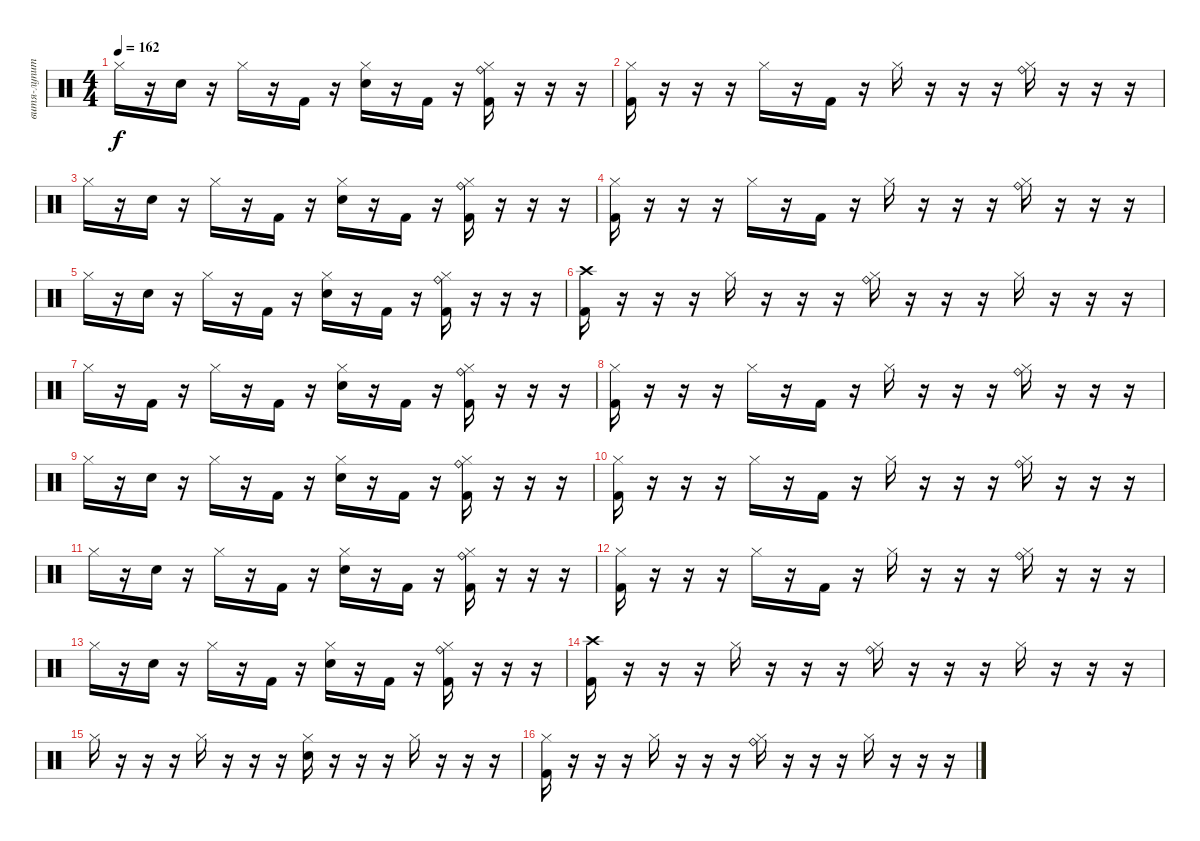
\track ("витя-лупит" "витя-лупит") {instrument percussion}
\staff {score}
\articulation defaults
\ts (4 4)
\tempo 162
\clef neutral
\ks c "Hi-Hat (closed)".16{dy f}
r.16 "Snare (hit) 2".16 r.16 "Hi-Hat (closed)".16 r.16 "Kick (hit) 2".16 r.16 ("Snare (hit) 2" "Hi-Hat (closed)").16 r.16 "Kick (hit) 2".16 r.16 ("Kick (hit) 2" "Ride (bell)" "Hi-Hat (closed)").16 r.16 r.16 r.16 |
("Kick (hit) 2" "Hi-Hat (closed)").16 r.16 r.16 r.16 "Hi-Hat (closed)".16 r.16 "Kick (hit) 2".16 r.16 "Hi-Hat (closed)".16 r.16 r.16 r.16 ("Ride (bell)" "Hi-Hat (closed)").16 r.16 r.16 r.16 |
"Hi-Hat (closed)".16 r.16 "Snare (hit) 2".16 r.16 "Hi-Hat (closed)".16 r.16 "Kick (hit) 2".16 r.16 ("Snare (hit) 2" "Hi-Hat (closed)").16 r.16 "Kick (hit) 2".16 r.16 ("Kick (hit) 2" "Ride (bell)" "Hi-Hat (closed)").16 r.16 r.16 r.16 |
("Kick (hit) 2" "Hi-Hat (closed)").16 r.16 r.16 r.16 "Hi-Hat (closed)".16 r.16 "Kick (hit) 2".16 r.16 "Hi-Hat (closed)".16 r.16 r.16 r.16 ("Ride (bell)" "Hi-Hat (closed)").16 r.16 r.16 r.16 |
"Hi-Hat (closed)".16 r.16 "Snare (hit) 2".16 r.16 "Hi-Hat (closed)".16 r.16 "Kick (hit) 2".16 r.16 ("Snare (hit) 2" "Hi-Hat (closed)").16 r.16 "Kick (hit) 2".16 r.16 ("Kick (hit) 2" "Ride (bell)" "Hi-Hat (closed)").16 r.16 r.16 r.16 |
("Crash high (hit)" "Kick (hit) 2").16 r.16 r.16 r.16 "Hi-Hat (closed)".16 r.16 r.16 r.16 ("Ride (bell)" "Hi-Hat (closed)").16 r.16 r.16 r.16 "Hi-Hat (closed)".16 r.16 r.16 r.16 |
"Hi-Hat (closed)".16 r.16 "Kick (hit) 2".16 r.16 "Hi-Hat (closed)".16 r.16 "Kick (hit) 2".16 r.16 ("Snare (hit) 2" "Hi-Hat (closed)").16 r.16 "Kick (hit) 2".16 r.16 ("Kick (hit) 2" "Ride (bell)" "Hi-Hat (closed)").16 r.16 r.16 r.16 |
("Kick (hit) 2" "Hi-Hat (closed)").16 r.16 r.16 r.16 "Hi-Hat (closed)".16 r.16 "Kick (hit) 2".16 r.16 "Hi-Hat (closed)".16 r.16 r.16 r.16 ("Ride (bell)" "Hi-Hat (closed)").16 r.16 r.16 r.16 |
"Hi-Hat (closed)".16 r.16 "Snare (hit) 2".16 r.16 "Hi-Hat (closed)".16 r.16 "Kick (hit) 2".16 r.16 ("Snare (hit) 2" "Hi-Hat (closed)").16 r.16 "Kick (hit) 2".16 r.16 ("Kick (hit) 2" "Ride (bell)" "Hi-Hat (closed)").16 r.16 r.16 r.16 |
("Kick (hit) 2" "Hi-Hat (closed)").16 r.16 r.16 r.16 "Hi-Hat (closed)".16 r.16 "Kick (hit) 2".16 r.16 "Hi-Hat (closed)".16 r.16 r.16 r.16 ("Ride (bell)" "Hi-Hat (closed)").16 r.16 r.16 r.16 |
"Hi-Hat (closed)".16 r.16 "Snare (hit) 2".16 r.16 "Hi-Hat (closed)".16 r.16 "Kick (hit) 2".16 r.16 ("Snare (hit) 2" "Hi-Hat (closed)").16 r.16 "Kick (hit) 2".16 r.16 ("Kick (hit) 2" "Ride (bell)" "Hi-Hat (closed)").16 r.16 r.16 r.16 |
("Kick (hit) 2" "Hi-Hat (closed)").16 r.16 r.16 r.16 "Hi-Hat (closed)".16 r.16 "Kick (hit) 2".16 r.16 "Hi-Hat (closed)".16 r.16 r.16 r.16 ("Ride (bell)" "Hi-Hat (closed)").16 r.16 r.16 r.16 |
"Hi-Hat (closed)".16 r.16 "Snare (hit) 2".16 r.16 "Hi-Hat (closed)".16 r.16 "Kick (hit) 2".16 r.16 ("Snare (hit) 2" "Hi-Hat (closed)").16 r.16 "Kick (hit) 2".16 r.16 ("Kick (hit) 2" "Ride (bell)" "Hi-Hat (closed)").16 r.16 r.16 r.16 |
("Crash high (hit)" "Kick (hit) 2").16 r.16 r.16 r.16 "Hi-Hat (closed)".16 r.16 r.16 r.16 ("Ride (bell)" "Hi-Hat (closed)").16 r.16 r.16 r.16 "Hi-Hat (closed)".16 r.16 r.16 r.16 |
"Hi-Hat (closed)".16 r.16 r.16 r.16 "Hi-Hat (closed)".16 r.16 r.16 r.16 ("Snare (hit) 2" "Hi-Hat (closed)").16 r.16 r.16 r.16 "Hi-Hat (closed)".16 r.16 r.16 r.16 |
("Kick (hit) 2" "Hi-Hat (closed)").16 r.16 r.16 r.16 "Hi-Hat (closed)".16 r.16 r.16 r.16 ("Ride (bell)" "Hi-Hat (closed)").16 r.16 r.16 r.16 "Hi-Hat (closed)".16 r.16 r.16 r.16
